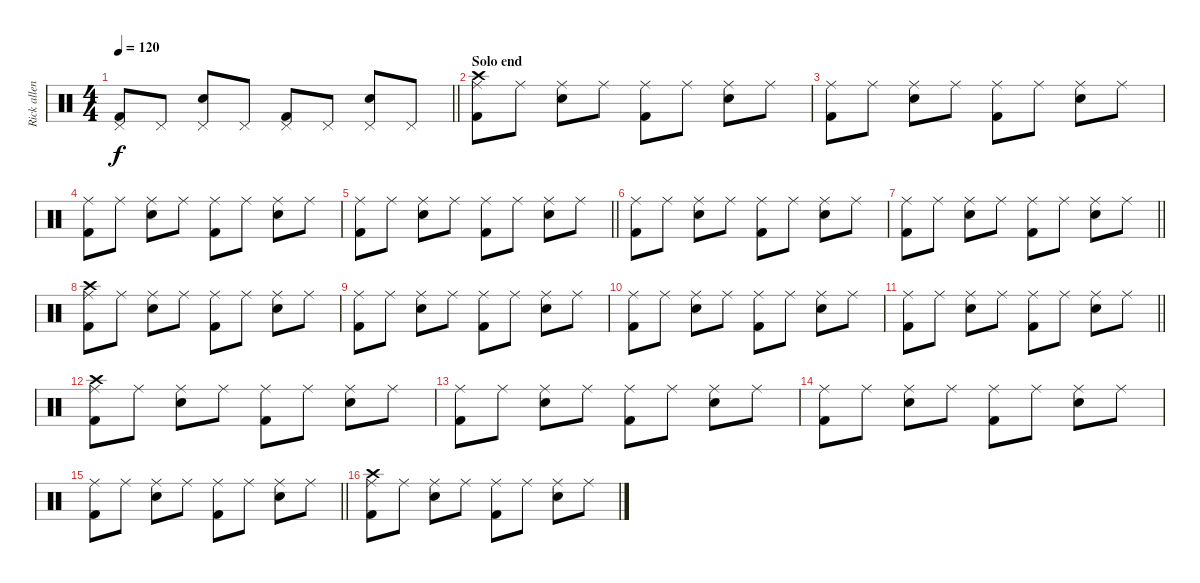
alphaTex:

\track ("Rick allen" "Rick allen") {instrument percussion}
\staff {score}
\articulation defaults
\ts (4 4)
\tempo 120
\clef neutral
\barLineRight lightlight
\ks c
("Pedal Hi-Hat (hit)" "Kick (hit) 2").8{dy f} "Pedal Hi-Hat (hit)".8 ("Pedal Hi-Hat (hit)" "Snare (hit) 2").8 "Pedal Hi-Hat (hit)".8 ("Pedal Hi-Hat (hit)" "Kick (hit) 2").8 "Pedal Hi-Hat (hit)".8 ("Pedal Hi-Hat (hit)" "Snare (hit) 2").8 "Pedal Hi-Hat (hit)".8 |
\section ("" "Solo end")
("Crash high (hit)" "Ride (middle)" "Kick (hit) 2").8 "Ride (middle)".8 ("Ride (middle)" "Snare (hit) 2").8 "Ride (middle)".8 ("Ride (middle)" "Kick (hit) 2").8 "Ride (middle)".8 ("Ride (middle)" "Snare (hit) 2").8 "Ride (middle)".8 |
("Ride (middle)" "Kick (hit) 2").8 "Ride (middle)".8 ("Ride (middle)" "Snare (hit) 2").8 "Ride (middle)".8 ("Ride (middle)" "Kick (hit) 2").8 "Ride (middle)".8 ("Ride (middle)" "Snare (hit) 2").8 "Ride (middle)".8 |
("Ride (middle)" "Kick (hit) 2").8 "Ride (middle)".8 ("Ride (middle)" "Snare (hit) 2").8 "Ride (middle)".8 ("Ride (middle)" "Kick (hit) 2").8 "Ride (middle)".8 ("Ride (middle)" "Snare (hit) 2").8 "Ride (middle)".8 |
\barLineRight lightlight
("Ride (middle)" "Kick (hit) 2").8 "Ride (middle)".8 ("Ride (middle)" "Snare (hit) 2").8 "Ride (middle)".8 ("Ride (middle)" "Kick (hit) 2").8 "Ride (middle)".8 ("Ride (middle)" "Snare (hit) 2").8 "Ride (middle)".8 |
("Ride (middle)" "Kick (hit) 2").8 "Ride (middle)".8 ("Ride (middle)" "Snare (hit) 2").8 "Ride (middle)".8 ("Ride (middle)" "Kick (hit) 2").8 "Ride (middle)".8 ("Ride (middle)" "Snare (hit) 2").8 "Ride (middle)".8 |
\barLineRight lightlight
("Ride (middle)" "Kick (hit) 2").8 "Ride (middle)".8 ("Ride (middle)" "Snare (hit) 2").8 "Ride (middle)".8 ("Ride (middle)" "Kick (hit) 2").8 "Ride (middle)".8 ("Ride (middle)" "Snare (hit) 2").8 "Ride (middle)".8 |
("Crash high (hit)" "Ride (middle)" "Kick (hit) 2").8 "Ride (middle)".8 ("Ride (middle)" "Snare (hit) 2").8 "Ride (middle)".8 ("Ride (middle)" "Kick (hit) 2").8 "Ride (middle)".8 ("Ride (middle)" "Snare (hit) 2").8 "Ride (middle)".8 |
("Ride (middle)" "Kick (hit) 2").8 "Ride (middle)".8 ("Ride (middle)" "Snare (hit) 2").8 "Ride (middle)".8 ("Ride (middle)" "Kick (hit) 2").8 "Ride (middle)".8 ("Ride (middle)" "Snare (hit) 2").8 "Ride (middle)".8 |
("Ride (middle)" "Kick (hit) 2").8 "Ride (middle)".8 ("Ride (middle)" "Snare (hit) 2").8 "Ride (middle)".8 ("Ride (middle)" "Kick (hit) 2").8 "Ride (middle)".8 ("Ride (middle)" "Snare (hit) 2").8 "Ride (middle)".8 |
\barLineRight lightlight
("Ride (middle)" "Kick (hit) 2").8 "Ride (middle)".8 ("Ride (middle)" "Snare (hit) 2").8 "Ride (middle)".8 ("Ride (middle)" "Kick (hit) 2").8 "Ride (middle)".8 ("Ride (middle)" "Snare (hit) 2").8 "Ride (middle)".8 |
("Crash high (hit)" "Ride (middle)" "Kick (hit) 2").8 "Ride (middle)".8 ("Ride (middle)" "Snare (hit) 2").8 "Ride (middle)".8 ("Ride (middle)" "Kick (hit) 2").8 "Ride (middle)".8 ("Ride (middle)" "Snare (hit) 2").8 "Ride (middle)".8 |
("Ride (middle)" "Kick (hit) 2").8 "Ride (middle)".8 ("Ride (middle)" "Snare (hit) 2").8 "Ride (middle)".8 ("Ride (middle)" "Kick (hit) 2").8 "Ride (middle)".8 ("Ride (middle)" "Snare (hit) 2").8 "Ride (middle)".8 |
("Ride (middle)" "Kick (hit) 2").8 "Ride (middle)".8 ("Ride (middle)" "Snare (hit) 2").8 "Ride (middle)".8 ("Ride (middle)" "Kick (hit) 2").8 "Ride (middle)".8 ("Ride (middle)" "Snare (hit) 2").8 "Ride (middle)".8 |
\barLineRight lightlight
("Ride (middle)" "Kick (hit) 2").8 "Ride (middle)".8 ("Ride (middle)" "Snare (hit) 2").8 "Ride (middle)".8 ("Ride (middle)" "Kick (hit) 2").8 "Ride (middle)".8 ("Ride (middle)" "Snare (hit) 2").8 "Ride (middle)".8 |
("Crash high (hit)" "Ride (middle)" "Kick (hit) 2").8 "Ride (middle)".8 ("Ride (middle)" "Snare (hit) 2").8 "Ride (middle)".8 ("Ride (middle)" "Kick (hit) 2").8 "Ride (middle)".8 ("Ride (middle)" "Snare (hit) 2").8 "Ride (middle)".8
